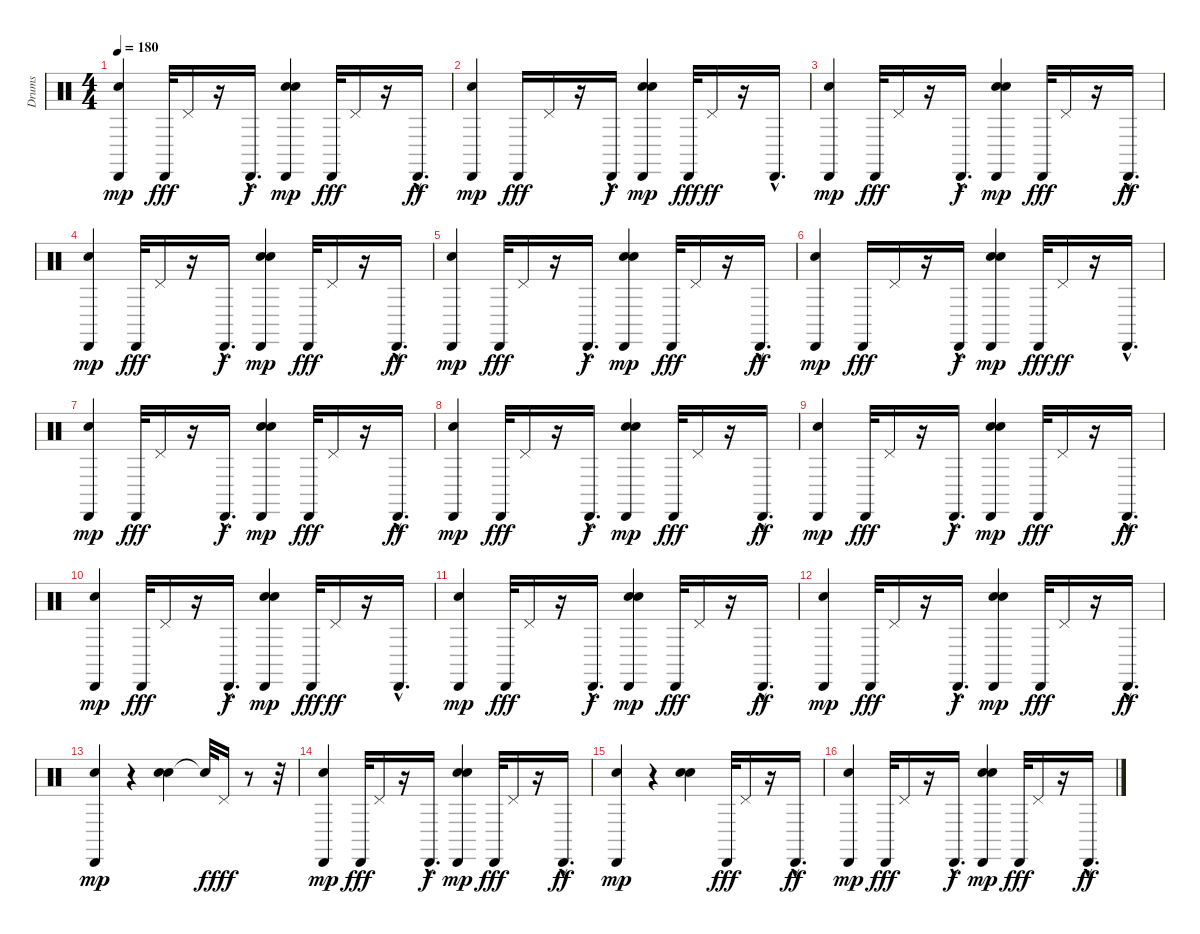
\track ("Drums" "Drums") {instrument percussion}
\staff {score}
\articulation defaults
\ts (4 4)
\tempo 180
\clef neutral
\ks c
("Snare (hit) 2" "Cabasa (hit)").4{dy mp} "Cabasa (hit)".32{dy fff} "Pedal Hi-Hat (hit)".16 r.16 "Cabasa (hit)"{hac}.16{d dy f} ("Snare (hit) 2" "Snare (hit) 2" "Cabasa (hit)").4{dy mp} "Cabasa (hit)".32{dy fff} "Pedal Hi-Hat (hit)".16 r.16 "Cabasa (hit)"{hac}.16{d dy ff} |
("Snare (hit) 2" "Cabasa (hit)").4{dy mp} "Cabasa (hit)".16{dy fff} "Pedal Hi-Hat (hit)".16 r.16 "Cabasa (hit)"{hac}.16{dy f} ("Snare (hit) 2" "Snare (hit) 2" "Cabasa (hit)").4{dy mp} "Cabasa (hit)".32{dy fff} "Pedal Hi-Hat (hit)".16{dy ff} r.16 "Cabasa (hit)"{hac}.16{d} |
("Snare (hit) 2" "Cabasa (hit)").4{dy mp} "Cabasa (hit)".32{dy fff} "Pedal Hi-Hat (hit)".16 r.16 "Cabasa (hit)"{hac}.16{d dy f} ("Snare (hit) 2" "Snare (hit) 2" "Cabasa (hit)").4{dy mp} "Cabasa (hit)".32{dy fff} "Pedal Hi-Hat (hit)".16 r.16 "Cabasa (hit)"{hac}.16{d dy ff} |
("Snare (hit) 2" "Cabasa (hit)").4{dy mp} "Cabasa (hit)".32{dy fff} "Pedal Hi-Hat (hit)".16 r.16 "Cabasa (hit)"{hac}.16{d dy f} ("Snare (hit) 2" "Snare (hit) 2" "Cabasa (hit)").4{dy mp} "Cabasa (hit)".32{dy fff} "Pedal Hi-Hat (hit)".16 r.16 "Cabasa (hit)"{hac}.16{d dy ff} |
("Snare (hit) 2" "Cabasa (hit)").4{dy mp} "Cabasa (hit)".32{dy fff} "Pedal Hi-Hat (hit)".16 r.16 "Cabasa (hit)"{hac}.16{d dy f} ("Snare (hit) 2" "Snare (hit) 2" "Cabasa (hit)").4{dy mp} "Cabasa (hit)".32{dy fff} "Pedal Hi-Hat (hit)".16 r.16 "Cabasa (hit)"{hac}.16{d dy ff} |
("Snare (hit) 2" "Cabasa (hit)").4{dy mp} "Cabasa (hit)".16{dy fff} "Pedal Hi-Hat (hit)".16 r.16 "Cabasa (hit)"{hac}.16{dy f} ("Snare (hit) 2" "Snare (hit) 2" "Cabasa (hit)").4{dy mp} "Cabasa (hit)".32{dy fff} "Pedal Hi-Hat (hit)".16{dy ff} r.16 "Cabasa (hit)"{hac}.16{d} |
("Snare (hit) 2" "Cabasa (hit)").4{dy mp} "Cabasa (hit)".32{dy fff} "Pedal Hi-Hat (hit)".16 r.16 "Cabasa (hit)"{hac}.16{d dy f} ("Snare (hit) 2" "Snare (hit) 2" "Cabasa (hit)").4{dy mp} "Cabasa (hit)".32{dy fff} "Pedal Hi-Hat (hit)".16 r.16 "Cabasa (hit)"{hac}.16{d dy ff} |
("Snare (hit) 2" "Cabasa (hit)").4{dy mp} "Cabasa (hit)".32{dy fff} "Pedal Hi-Hat (hit)".16 r.16 "Cabasa (hit)"{hac}.16{d dy f} ("Snare (hit) 2" "Snare (hit) 2" "Cabasa (hit)").4{dy mp} "Cabasa (hit)".32{dy fff} "Pedal Hi-Hat (hit)".16 r.16 "Cabasa (hit)"{hac}.16{d dy ff} |
("Snare (hit) 2" "Cabasa (hit)").4{dy mp} "Cabasa (hit)".32{dy fff} "Pedal Hi-Hat (hit)".16 r.16 "Cabasa (hit)"{hac}.16{d dy f} ("Snare (hit) 2" "Snare (hit) 2" "Cabasa (hit)").4{dy mp} "Cabasa (hit)".32{dy fff} "Pedal Hi-Hat (hit)".16 r.16 "Cabasa (hit)"{hac}.16{d dy ff} |
("Snare (hit) 2" "Cabasa (hit)").4{dy mp} "Cabasa (hit)".32{dy fff} "Pedal Hi-Hat (hit)".16 r.16 "Cabasa (hit)"{hac}.16{d dy f} ("Snare (hit) 2" "Snare (hit) 2" "Cabasa (hit)").4{dy mp} "Cabasa (hit)".32{dy fff} "Pedal Hi-Hat (hit)".16{dy ff} r.16 "Cabasa (hit)"{hac}.16{d} |
("Snare (hit) 2" "Cabasa (hit)").4{dy mp} "Cabasa (hit)".32{dy fff} "Pedal Hi-Hat (hit)".16 r.16 "Cabasa (hit)"{hac}.16{d dy f} ("Snare (hit) 2" "Snare (hit) 2" "Cabasa (hit)").4{dy mp} "Cabasa (hit)".32{dy fff} "Pedal Hi-Hat (hit)".16 r.16 "Cabasa (hit)"{hac}.16{d dy ff} |
("Snare (hit) 2" "Cabasa (hit)").4{dy mp} "Cabasa (hit)".32{dy fff} "Pedal Hi-Hat (hit)".16 r.16 "Cabasa (hit)"{hac}.16{d dy f} ("Snare (hit) 2" "Snare (hit) 2" "Cabasa (hit)").4{dy mp} "Cabasa (hit)".32{dy fff} "Pedal Hi-Hat (hit)".16 r.16 "Cabasa (hit)"{hac}.16{d dy ff} |
("Snare (hit) 2" "Cabasa (hit)").4{dy mp} r.4 ("Snare (hit) 2" "Snare (hit) 2").4 "Snare (hit)"{t}.32{dy f} "Pedal Hi-Hat (hit)".16{dy fff} r.8 r.32 |
("Snare (hit) 2" "Cabasa (hit)").4{dy mp} "Cabasa (hit)".32{dy fff} "Pedal Hi-Hat (hit)".16 r.16 "Cabasa (hit)"{hac}.16{d dy f} ("Snare (hit) 2" "Snare (hit) 2" "Cabasa (hit)").4{dy mp} "Cabasa (hit)".32{dy fff} "Pedal Hi-Hat (hit)".16 r.16 "Cabasa (hit)"{hac}.16{d dy ff} |
("Snare (hit) 2" "Cabasa (hit)").4{dy mp} r.4 ("Snare (hit) 2" "Snare (hit) 2").4 "Cabasa (hit)".32{dy fff} "Pedal Hi-Hat (hit)".16 r.16 "Cabasa (hit)"{hac}.16{d dy ff} |
("Snare (hit) 2" "Cabasa (hit)").4{dy mp} "Cabasa (hit)".32{dy fff} "Pedal Hi-Hat (hit)".16 r.16 "Cabasa (hit)"{hac}.16{d dy f} ("Snare (hit) 2" "Snare (hit) 2" "Cabasa (hit)").4{dy mp} "Cabasa (hit)".32{dy fff} "Pedal Hi-Hat (hit)".16 r.16 "Cabasa (hit)"{hac}.16{d dy ff}
